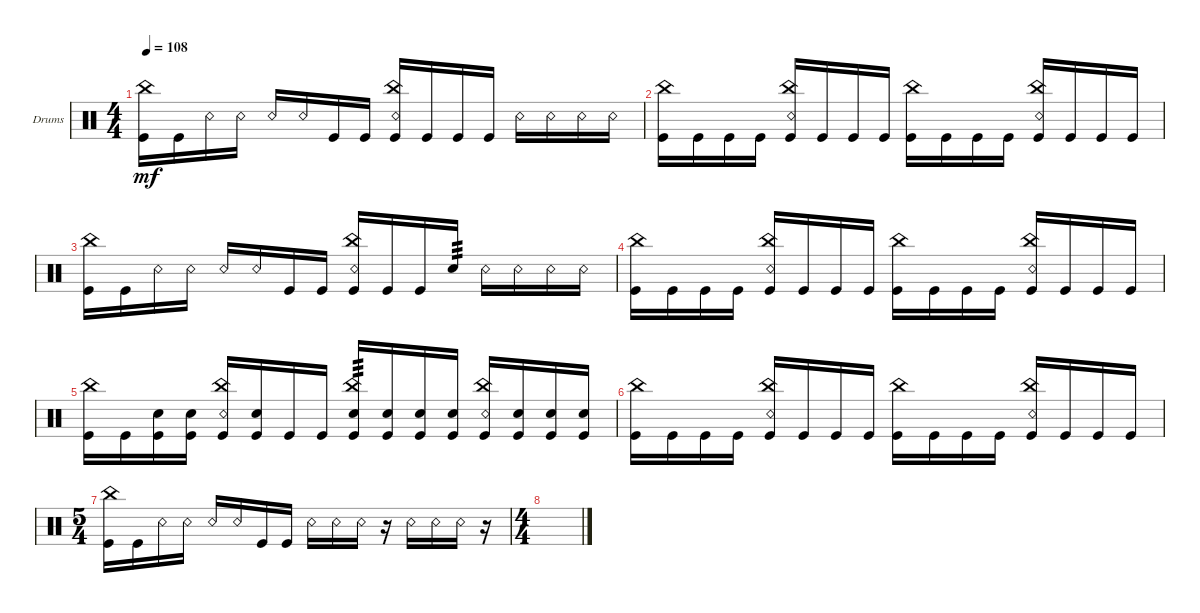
\defaultSystemsLayout 4
\bracketExtendMode groupsimilarinstruments
\firstSystemTrackNameOrientation horizontal
\otherSystemsTrackNameOrientation horizontal
\track ("Drumkit" "Drums") {instrument percussion}
\staff {score}
\articulation defaults
\ts (4 4)
\tempo 108
\clef neutral
\ks c
("Kick (hit)" "China (hit)").16{dy mf} "Kick (hit)".16 "Snare (rim shot)".16 "Snare (rim shot)".16 "Snare (rim shot)".16 "Snare (rim shot)".16 "Kick (hit)".16 "Kick (hit)".16 ("Kick (hit)" "Snare (rim shot)" "China (hit)").16 "Kick (hit)".16 "Kick (hit)".16 "Kick (hit)".16 "Snare (rim shot)".16 "Snare (rim shot)".16 "Snare (rim shot)".16 "Snare (rim shot)".16 |
("Kick (hit)" "China (hit)").16 "Kick (hit)".16 "Kick (hit)".16 "Kick (hit)".16 ("Kick (hit)" "China (hit)" "Snare (rim shot)").16 "Kick (hit)".16 "Kick (hit)".16 "Kick (hit)".16 ("Kick (hit)" "China (hit)").16 "Kick (hit)".16 "Kick (hit)".16 "Kick (hit)".16 ("Kick (hit)" "China (hit)" "Snare (rim shot)").16 "Kick (hit)".16 "Kick (hit)".16 "Kick (hit)".16 |
("Kick (hit)" "China (hit)").16 "Kick (hit)".16 "Snare (rim shot)".16 "Snare (rim shot)".16 "Snare (rim shot)".16 "Snare (rim shot)".16 "Kick (hit)".16 "Kick (hit)".16 ("Kick (hit)" "Snare (rim shot)" "China (hit)").16 "Kick (hit)".16 "Kick (hit)".16 "Snare (hit) 2".16{tp 3} "Snare (rim shot)".16 "Snare (rim shot)".16 "Snare (rim shot)".16 "Snare (rim shot)".16 |
("Kick (hit)" "China (hit)").16 "Kick (hit)".16 "Kick (hit)".16 "Kick (hit)".16 ("Kick (hit)" "China (hit)" "Snare (rim shot)").16 "Kick (hit)".16 "Kick (hit)".16 "Kick (hit)".16 ("Kick (hit)" "China (hit)").16 "Kick (hit)".16 "Kick (hit)".16 "Kick (hit)".16 ("Kick (hit)" "China (hit)" "Snare (rim shot)").16 "Kick (hit)".16 "Kick (hit)".16 "Kick (hit)".16 |
("Kick (hit)" "China (hit)").16 "Kick (hit)".16 ("Kick (hit)" "Snare (hit) 2").16 ("Kick (hit)" "Snare (hit) 2").16 ("Snare (rim shot)" "China (hit)" "Kick (hit)").16 ("Kick (hit)" "Snare (hit) 2").16 "Kick (hit)".16 "Kick (hit)".16 ("Kick (hit)" "China (hit)" "Snare (hit) 2").16{tp 3} ("Kick (hit)" "Snare (hit) 2").16 ("Kick (hit)" "Snare (hit) 2").16 ("Kick (hit)" "Snare (hit) 2").16 ("Snare (rim shot)" "Kick (hit)" "China (hit)").16 ("Kick (hit)" "Snare (hit) 2").16 ("Kick (hit)" "Snare (hit) 2").16 ("Kick (hit)" "Snare (hit) 2").16 |
("Kick (hit)" "China (hit)").16 "Kick (hit)".16 "Kick (hit)".16 "Kick (hit)".16 ("Kick (hit)" "China (hit)" "Snare (rim shot)").16 "Kick (hit)".16 "Kick (hit)".16 "Kick (hit)".16 ("Kick (hit)" "China (hit)").16 "Kick (hit)".16 "Kick (hit)".16 "Kick (hit)".16 ("Kick (hit)" "China (hit)" "Snare (rim shot)").16 "Kick (hit)".16 "Kick (hit)".16 "Kick (hit)".16 |
\ts (5 4)
("Kick (hit)" "China (hit)").16 "Kick (hit)".16 "Snare (rim shot)".16 "Snare (rim shot)".16 "Snare (rim shot)".16 "Snare (rim shot)".16 "Kick (hit)".16 "Kick (hit)".16 "Snare (rim shot)".16 "Snare (rim shot)".16 "Snare (rim shot)".16 r.16 "Snare (rim shot)".16 "Snare (rim shot)".16 "Snare (rim shot)".16 r.16 |
\ts (4 4)
